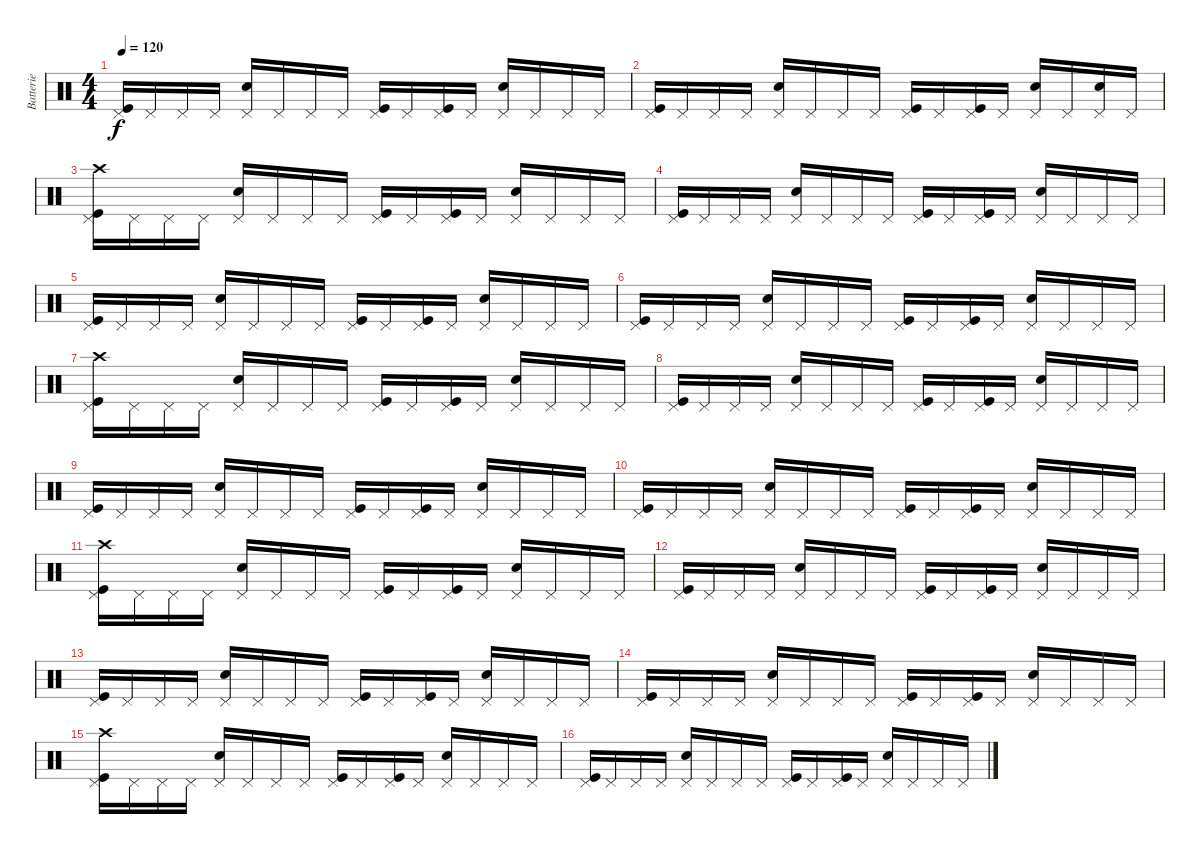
\track ("Batterie" "Batterie") {instrument percussion}
\staff {score}
\articulation defaults
\ts (4 4)
\tempo 120
\clef neutral
\ks c
("Pedal Hi-Hat (hit)" "Kick (hit)").16{dy f} "Pedal Hi-Hat (hit)".16 "Pedal Hi-Hat (hit)".16 "Pedal Hi-Hat (hit)".16 ("Electric Snare (hit)" "Pedal Hi-Hat (hit)").16 "Pedal Hi-Hat (hit)".16 "Pedal Hi-Hat (hit)".16 "Pedal Hi-Hat (hit)".16 ("Pedal Hi-Hat (hit)" "Kick (hit)").16 "Pedal Hi-Hat (hit)".16 ("Pedal Hi-Hat (hit)" "Kick (hit)").16 "Pedal Hi-Hat (hit)".16 ("Electric Snare (hit)" "Pedal Hi-Hat (hit)").16 "Pedal Hi-Hat (hit)".16 "Pedal Hi-Hat (hit)".16 "Pedal Hi-Hat (hit)".16 |
("Pedal Hi-Hat (hit)" "Kick (hit)").16 "Pedal Hi-Hat (hit)".16 "Pedal Hi-Hat (hit)".16 "Pedal Hi-Hat (hit)".16 ("Electric Snare (hit)" "Pedal Hi-Hat (hit)").16 "Pedal Hi-Hat (hit)".16 "Pedal Hi-Hat (hit)".16 "Pedal Hi-Hat (hit)".16 ("Pedal Hi-Hat (hit)" "Kick (hit)").16 "Pedal Hi-Hat (hit)".16 ("Pedal Hi-Hat (hit)" "Kick (hit)").16 "Pedal Hi-Hat (hit)".16 ("Electric Snare (hit)" "Pedal Hi-Hat (hit)").16 "Pedal Hi-Hat (hit)".16 ("Electric Snare (hit)" "Pedal Hi-Hat (hit)").16 "Pedal Hi-Hat (hit)".16 |
("Crash high (hit)" "Pedal Hi-Hat (hit)" "Kick (hit)").16 "Pedal Hi-Hat (hit)".16 "Pedal Hi-Hat (hit)".16 "Pedal Hi-Hat (hit)".16 ("Electric Snare (hit)" "Pedal Hi-Hat (hit)").16 "Pedal Hi-Hat (hit)".16 "Pedal Hi-Hat (hit)".16 "Pedal Hi-Hat (hit)".16 ("Pedal Hi-Hat (hit)" "Kick (hit)").16 "Pedal Hi-Hat (hit)".16 ("Pedal Hi-Hat (hit)" "Kick (hit)").16 "Pedal Hi-Hat (hit)".16 ("Electric Snare (hit)" "Pedal Hi-Hat (hit)").16 "Pedal Hi-Hat (hit)".16 "Pedal Hi-Hat (hit)".16 "Pedal Hi-Hat (hit)".16 |
("Pedal Hi-Hat (hit)" "Kick (hit)").16 "Pedal Hi-Hat (hit)".16 "Pedal Hi-Hat (hit)".16 "Pedal Hi-Hat (hit)".16 ("Electric Snare (hit)" "Pedal Hi-Hat (hit)").16 "Pedal Hi-Hat (hit)".16 "Pedal Hi-Hat (hit)".16 "Pedal Hi-Hat (hit)".16 ("Pedal Hi-Hat (hit)" "Kick (hit)").16 "Pedal Hi-Hat (hit)".16 ("Pedal Hi-Hat (hit)" "Kick (hit)").16 "Pedal Hi-Hat (hit)".16 ("Electric Snare (hit)" "Pedal Hi-Hat (hit)").16 "Pedal Hi-Hat (hit)".16 "Pedal Hi-Hat (hit)".16 "Pedal Hi-Hat (hit)".16 |
("Pedal Hi-Hat (hit)" "Kick (hit)").16 "Pedal Hi-Hat (hit)".16 "Pedal Hi-Hat (hit)".16 "Pedal Hi-Hat (hit)".16 ("Electric Snare (hit)" "Pedal Hi-Hat (hit)").16 "Pedal Hi-Hat (hit)".16 "Pedal Hi-Hat (hit)".16 "Pedal Hi-Hat (hit)".16 ("Pedal Hi-Hat (hit)" "Kick (hit)").16 "Pedal Hi-Hat (hit)".16 ("Pedal Hi-Hat (hit)" "Kick (hit)").16 "Pedal Hi-Hat (hit)".16 ("Electric Snare (hit)" "Pedal Hi-Hat (hit)").16 "Pedal Hi-Hat (hit)".16 "Pedal Hi-Hat (hit)".16 "Pedal Hi-Hat (hit)".16 |
("Pedal Hi-Hat (hit)" "Kick (hit)").16 "Pedal Hi-Hat (hit)".16 "Pedal Hi-Hat (hit)".16 "Pedal Hi-Hat (hit)".16 ("Electric Snare (hit)" "Pedal Hi-Hat (hit)").16 "Pedal Hi-Hat (hit)".16 "Pedal Hi-Hat (hit)".16 "Pedal Hi-Hat (hit)".16 ("Pedal Hi-Hat (hit)" "Kick (hit)").16 "Pedal Hi-Hat (hit)".16 ("Pedal Hi-Hat (hit)" "Kick (hit)").16 "Pedal Hi-Hat (hit)".16 ("Electric Snare (hit)" "Pedal Hi-Hat (hit)").16 "Pedal Hi-Hat (hit)".16 "Pedal Hi-Hat (hit)".16 "Pedal Hi-Hat (hit)".16 |
("Crash high (hit)" "Pedal Hi-Hat (hit)" "Kick (hit)").16 "Pedal Hi-Hat (hit)".16 "Pedal Hi-Hat (hit)".16 "Pedal Hi-Hat (hit)".16 ("Electric Snare (hit)" "Pedal Hi-Hat (hit)").16 "Pedal Hi-Hat (hit)".16 "Pedal Hi-Hat (hit)".16 "Pedal Hi-Hat (hit)".16 ("Pedal Hi-Hat (hit)" "Kick (hit)").16 "Pedal Hi-Hat (hit)".16 ("Pedal Hi-Hat (hit)" "Kick (hit)").16 "Pedal Hi-Hat (hit)".16 ("Electric Snare (hit)" "Pedal Hi-Hat (hit)").16 "Pedal Hi-Hat (hit)".16 "Pedal Hi-Hat (hit)".16 "Pedal Hi-Hat (hit)".16 |
("Pedal Hi-Hat (hit)" "Kick (hit)").16 "Pedal Hi-Hat (hit)".16 "Pedal Hi-Hat (hit)".16 "Pedal Hi-Hat (hit)".16 ("Electric Snare (hit)" "Pedal Hi-Hat (hit)").16 "Pedal Hi-Hat (hit)".16 "Pedal Hi-Hat (hit)".16 "Pedal Hi-Hat (hit)".16 ("Pedal Hi-Hat (hit)" "Kick (hit)").16 "Pedal Hi-Hat (hit)".16 ("Pedal Hi-Hat (hit)" "Kick (hit)").16 "Pedal Hi-Hat (hit)".16 ("Electric Snare (hit)" "Pedal Hi-Hat (hit)").16 "Pedal Hi-Hat (hit)".16 "Pedal Hi-Hat (hit)".16 "Pedal Hi-Hat (hit)".16 |
("Pedal Hi-Hat (hit)" "Kick (hit)").16 "Pedal Hi-Hat (hit)".16 "Pedal Hi-Hat (hit)".16 "Pedal Hi-Hat (hit)".16 ("Electric Snare (hit)" "Pedal Hi-Hat (hit)").16 "Pedal Hi-Hat (hit)".16 "Pedal Hi-Hat (hit)".16 "Pedal Hi-Hat (hit)".16 ("Pedal Hi-Hat (hit)" "Kick (hit)").16 "Pedal Hi-Hat (hit)".16 ("Pedal Hi-Hat (hit)" "Kick (hit)").16 "Pedal Hi-Hat (hit)".16 ("Electric Snare (hit)" "Pedal Hi-Hat (hit)").16 "Pedal Hi-Hat (hit)".16 "Pedal Hi-Hat (hit)".16 "Pedal Hi-Hat (hit)".16 |
("Pedal Hi-Hat (hit)" "Kick (hit)").16 "Pedal Hi-Hat (hit)".16 "Pedal Hi-Hat (hit)".16 "Pedal Hi-Hat (hit)".16 ("Electric Snare (hit)" "Pedal Hi-Hat (hit)").16 "Pedal Hi-Hat (hit)".16 "Pedal Hi-Hat (hit)".16 "Pedal Hi-Hat (hit)".16 ("Pedal Hi-Hat (hit)" "Kick (hit)").16 "Pedal Hi-Hat (hit)".16 ("Pedal Hi-Hat (hit)" "Kick (hit)").16 "Pedal Hi-Hat (hit)".16 ("Electric Snare (hit)" "Pedal Hi-Hat (hit)").16 "Pedal Hi-Hat (hit)".16 "Pedal Hi-Hat (hit)".16 "Pedal Hi-Hat (hit)".16 |
("Crash high (hit)" "Pedal Hi-Hat (hit)" "Kick (hit)").16 "Pedal Hi-Hat (hit)".16 "Pedal Hi-Hat (hit)".16 "Pedal Hi-Hat (hit)".16 ("Electric Snare (hit)" "Pedal Hi-Hat (hit)").16 "Pedal Hi-Hat (hit)".16 "Pedal Hi-Hat (hit)".16 "Pedal Hi-Hat (hit)".16 ("Pedal Hi-Hat (hit)" "Kick (hit)").16 "Pedal Hi-Hat (hit)".16 ("Pedal Hi-Hat (hit)" "Kick (hit)").16 "Pedal Hi-Hat (hit)".16 ("Electric Snare (hit)" "Pedal Hi-Hat (hit)").16 "Pedal Hi-Hat (hit)".16 "Pedal Hi-Hat (hit)".16 "Pedal Hi-Hat (hit)".16 |
("Pedal Hi-Hat (hit)" "Kick (hit)").16 "Pedal Hi-Hat (hit)".16 "Pedal Hi-Hat (hit)".16 "Pedal Hi-Hat (hit)".16 ("Electric Snare (hit)" "Pedal Hi-Hat (hit)").16 "Pedal Hi-Hat (hit)".16 "Pedal Hi-Hat (hit)".16 "Pedal Hi-Hat (hit)".16 ("Pedal Hi-Hat (hit)" "Kick (hit)").16 "Pedal Hi-Hat (hit)".16 ("Pedal Hi-Hat (hit)" "Kick (hit)").16 "Pedal Hi-Hat (hit)".16 ("Electric Snare (hit)" "Pedal Hi-Hat (hit)").16 "Pedal Hi-Hat (hit)".16 "Pedal Hi-Hat (hit)".16 "Pedal Hi-Hat (hit)".16 |
("Pedal Hi-Hat (hit)" "Kick (hit)").16 "Pedal Hi-Hat (hit)".16 "Pedal Hi-Hat (hit)".16 "Pedal Hi-Hat (hit)".16 ("Electric Snare (hit)" "Pedal Hi-Hat (hit)").16 "Pedal Hi-Hat (hit)".16 "Pedal Hi-Hat (hit)".16 "Pedal Hi-Hat (hit)".16 ("Pedal Hi-Hat (hit)" "Kick (hit)").16 "Pedal Hi-Hat (hit)".16 ("Pedal Hi-Hat (hit)" "Kick (hit)").16 "Pedal Hi-Hat (hit)".16 ("Electric Snare (hit)" "Pedal Hi-Hat (hit)").16 "Pedal Hi-Hat (hit)".16 "Pedal Hi-Hat (hit)".16 "Pedal Hi-Hat (hit)".16 |
("Pedal Hi-Hat (hit)" "Kick (hit)").16 "Pedal Hi-Hat (hit)".16 "Pedal Hi-Hat (hit)".16 "Pedal Hi-Hat (hit)".16 ("Electric Snare (hit)" "Pedal Hi-Hat (hit)").16 "Pedal Hi-Hat (hit)".16 "Pedal Hi-Hat (hit)".16 "Pedal Hi-Hat (hit)".16 ("Pedal Hi-Hat (hit)" "Kick (hit)").16 "Pedal Hi-Hat (hit)".16 ("Pedal Hi-Hat (hit)" "Kick (hit)").16 "Pedal Hi-Hat (hit)".16 ("Electric Snare (hit)" "Pedal Hi-Hat (hit)").16 "Pedal Hi-Hat (hit)".16 "Pedal Hi-Hat (hit)".16 "Pedal Hi-Hat (hit)".16 |
("Crash high (hit)" "Pedal Hi-Hat (hit)" "Kick (hit)").16 "Pedal Hi-Hat (hit)".16 "Pedal Hi-Hat (hit)".16 "Pedal Hi-Hat (hit)".16 ("Electric Snare (hit)" "Pedal Hi-Hat (hit)").16 "Pedal Hi-Hat (hit)".16 "Pedal Hi-Hat (hit)".16 "Pedal Hi-Hat (hit)".16 ("Pedal Hi-Hat (hit)" "Kick (hit)").16 "Pedal Hi-Hat (hit)".16 ("Pedal Hi-Hat (hit)" "Kick (hit)").16 "Pedal Hi-Hat (hit)".16 ("Electric Snare (hit)" "Pedal Hi-Hat (hit)").16 "Pedal Hi-Hat (hit)".16 "Pedal Hi-Hat (hit)".16 "Pedal Hi-Hat (hit)".16 |
("Pedal Hi-Hat (hit)" "Kick (hit)").16 "Pedal Hi-Hat (hit)".16 "Pedal Hi-Hat (hit)".16 "Pedal Hi-Hat (hit)".16 ("Electric Snare (hit)" "Pedal Hi-Hat (hit)").16 "Pedal Hi-Hat (hit)".16 "Pedal Hi-Hat (hit)".16 "Pedal Hi-Hat (hit)".16 ("Pedal Hi-Hat (hit)" "Kick (hit)").16 "Pedal Hi-Hat (hit)".16 ("Pedal Hi-Hat (hit)" "Kick (hit)").16 "Pedal Hi-Hat (hit)".16 ("Electric Snare (hit)" "Pedal Hi-Hat (hit)").16 "Pedal Hi-Hat (hit)".16 "Pedal Hi-Hat (hit)".16 "Pedal Hi-Hat (hit)".16
